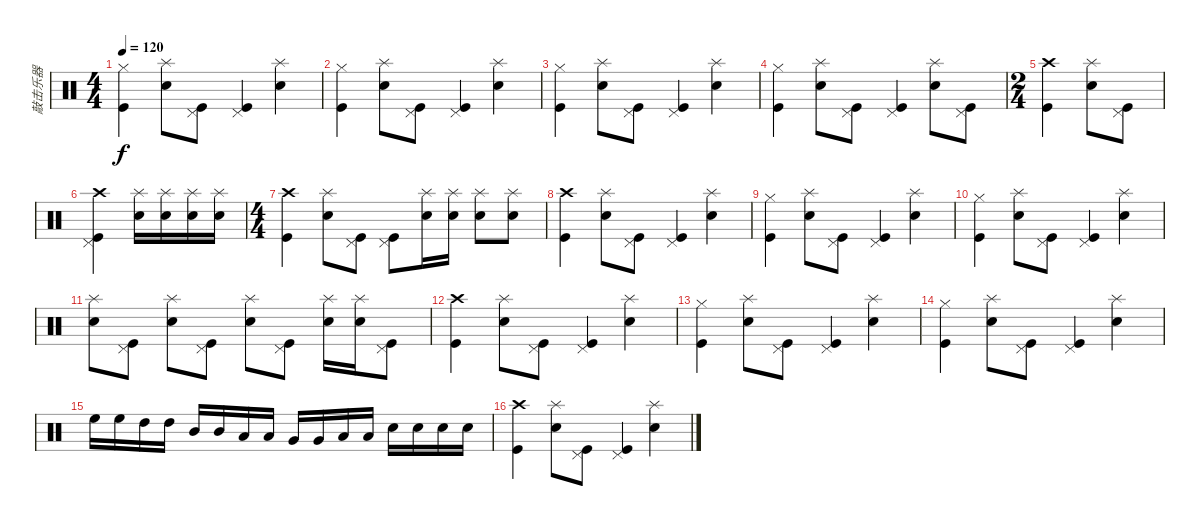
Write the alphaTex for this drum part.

\track ("敲击乐器" "敲击乐器") {instrument percussion}
\staff {score}
\articulation defaults
\ts (4 4)
\tempo 120
\clef neutral
\ks c
("Hi-Hat (closed)" "Kick (hit)").4{dy f} ("Splash (hit)" "Snare (hit) 2").8 ("Pedal Hi-Hat (hit)" "Kick (hit)").8 ("Pedal Hi-Hat (hit)" "Kick (hit)").4 ("Splash (hit)" "Snare (hit) 2").4 |
("Hi-Hat (closed)" "Kick (hit)").4 ("Splash (hit)" "Snare (hit) 2").8 ("Pedal Hi-Hat (hit)" "Kick (hit)").8 ("Pedal Hi-Hat (hit)" "Kick (hit)").4 ("Splash (hit)" "Snare (hit) 2").4 |
("Hi-Hat (closed)" "Kick (hit)").4 ("Splash (hit)" "Snare (hit) 2").8 ("Pedal Hi-Hat (hit)" "Kick (hit)").8 ("Pedal Hi-Hat (hit)" "Kick (hit)").4 ("Splash (hit)" "Snare (hit) 2").4 |
("Hi-Hat (closed)" "Kick (hit)").4 ("Splash (hit)" "Snare (hit) 2").8 ("Pedal Hi-Hat (hit)" "Kick (hit)").8 ("Pedal Hi-Hat (hit)" "Kick (hit)").4 ("Splash (hit)" "Snare (hit) 2").8 ("Pedal Hi-Hat (hit)" "Kick (hit)").8 |
\ts (2 4)
("Crash high (hit)" "Kick (hit)").4 ("Splash (hit)" "Snare (hit) 2").8 ("Pedal Hi-Hat (hit)" "Kick (hit)").8 |
("Crash high (hit)" "Pedal Hi-Hat (hit)" "Kick (hit)").4 ("Splash (hit)" "Snare (hit) 2").16 ("Splash (hit)" "Snare (hit) 2").16 ("Splash (hit)" "Snare (hit) 2").16 ("Splash (hit)" "Snare (hit) 2").16 |
\ts (4 4)
("Crash high (hit)" "Kick (hit)").4 ("Splash (hit)" "Snare (hit) 2").8 ("Pedal Hi-Hat (hit)" "Kick (hit)").8 ("Pedal Hi-Hat (hit)" "Kick (hit)").8 ("Splash (hit)" "Snare (hit) 2").16 ("Splash (hit)" "Snare (hit) 2").16 ("Splash (hit)" "Snare (hit) 2").8 ("Splash (hit)" "Snare (hit) 2").8 |
("Crash high (hit)" "Kick (hit)").4 ("Splash (hit)" "Snare (hit) 2").8 ("Pedal Hi-Hat (hit)" "Kick (hit)").8 ("Pedal Hi-Hat (hit)" "Kick (hit)").4 ("Splash (hit)" "Snare (hit) 2").4 |
("Hi-Hat (closed)" "Kick (hit)").4 ("Splash (hit)" "Snare (hit) 2").8 ("Pedal Hi-Hat (hit)" "Kick (hit)").8 ("Pedal Hi-Hat (hit)" "Kick (hit)").4 ("Splash (hit)" "Snare (hit) 2").4 |
("Hi-Hat (closed)" "Kick (hit)").4 ("Splash (hit)" "Snare (hit) 2").8 ("Pedal Hi-Hat (hit)" "Kick (hit)").8 ("Pedal Hi-Hat (hit)" "Kick (hit)").4 ("Splash (hit)" "Snare (hit) 2").4 |
("Splash (hit)" "Snare (hit) 2").8 ("Pedal Hi-Hat (hit)" "Kick (hit)").8 ("Splash (hit)" "Snare (hit) 2").8 ("Pedal Hi-Hat (hit)" "Kick (hit)").8 ("Splash (hit)" "Snare (hit) 2").8 ("Pedal Hi-Hat (hit)" "Kick (hit)").8 ("Splash (hit)" "Snare (hit) 2").16 ("Splash (hit)" "Snare (hit) 2").16 ("Pedal Hi-Hat (hit)" "Kick (hit)").8 |
("Crash high (hit)" "Kick (hit)").4 ("Splash (hit)" "Snare (hit) 2").8 ("Pedal Hi-Hat (hit)" "Kick (hit)").8 ("Pedal Hi-Hat (hit)" "Kick (hit)").4 ("Splash (hit)" "Snare (hit) 2").4 |
("Hi-Hat (closed)" "Kick (hit)").4 ("Splash (hit)" "Snare (hit) 2").8 ("Pedal Hi-Hat (hit)" "Kick (hit)").8 ("Pedal Hi-Hat (hit)" "Kick (hit)").4 ("Splash (hit)" "Snare (hit) 2").4 |
("Hi-Hat (closed)" "Kick (hit)").4 ("Splash (hit)" "Snare (hit) 2").8 ("Pedal Hi-Hat (hit)" "Kick (hit)").8 ("Pedal Hi-Hat (hit)" "Kick (hit)").4 ("Splash (hit)" "Snare (hit) 2").4 |
"High Floor Tom (hit)".16 "High Floor Tom (hit)".16 "High Tom (hit)".16 "High Tom (hit)".16 "Mid Tom (hit)".16 "Mid Tom (hit)".16 "Low Tom (hit)".16 "Low Tom (hit)".16 "Very Low Tom (hit)".16 "Very Low Tom (hit)".16 "Low Floor Tom (hit)".16 "Low Floor Tom (hit)".16 "Snare (hit) 2".16 "Snare (hit) 2".16 "Snare (hit) 2".16 "Snare (hit) 2".16 |
("Crash high (hit)" "Kick (hit)").4 ("Splash (hit)" "Snare (hit) 2").8 ("Pedal Hi-Hat (hit)" "Kick (hit)").8 ("Pedal Hi-Hat (hit)" "Kick (hit)").4 ("Splash (hit)" "Snare (hit) 2").4
